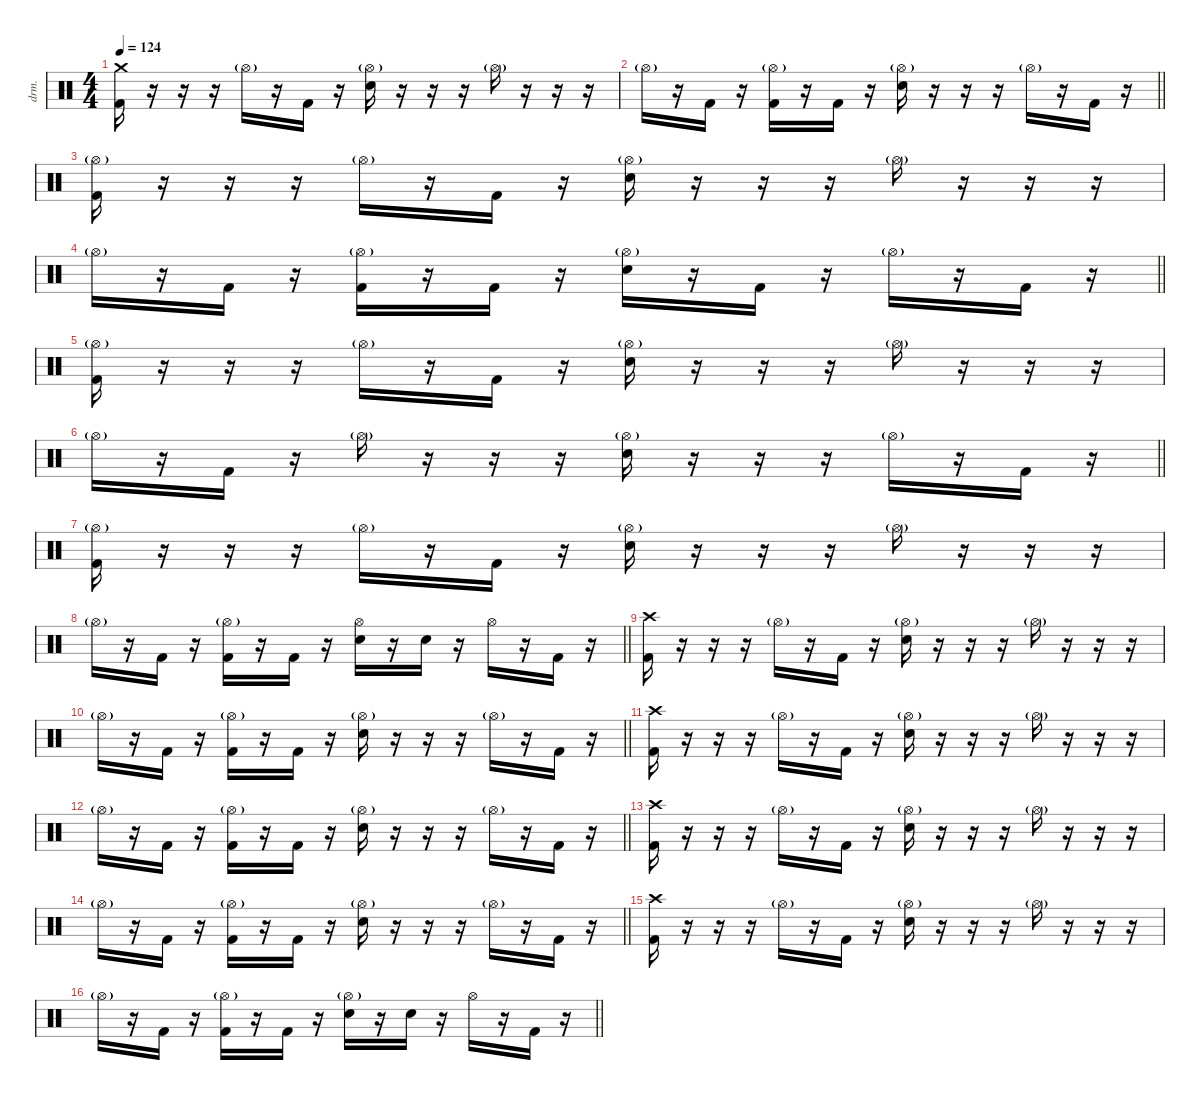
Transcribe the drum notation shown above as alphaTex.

\defaultSystemsLayout 4
\hideDynamics
\bracketExtendMode nobrackets
\otherSystemsTrackNameOrientation horizontal
\track ("Percussion" "drm.") {instrument percussion}
\staff {score}
\articulation defaults
\ts (4 4)
\section ("" "")
\tempo 124
\clef neutral
\ks c
("Kick (hit) 2" "Crash medium (hit)").16{dy f beam Down} r.16{beam Down} r.16{beam Down} r.16{beam Down} "Hi-Hat (open)"{g}.16{dy mf beam Down} r.16{beam Down} "Kick (hit) 2".16{dy f beam Down} r.16{beam Down} ("Snare (hit) 2" "Hi-Hat (open)"{g}).16{beam Down} r.16{beam Down} r.16{beam Down} r.16{beam Down} "Hi-Hat (open)"{g}.16{dy mf beam Down} r.16{beam Down} r.16{beam Down} r.16{beam Down} |
\barLineRight lightlight "Hi-Hat (open)"{g}.16{beam Down}
r.16{beam Down} "Kick (hit) 2".16{dy f beam Down} r.16{beam Down} ("Kick (hit) 2" "Hi-Hat (open)"{g}).16{beam Down} r.16{beam Down} "Kick (hit) 2".16{beam Down} r.16{beam Down} ("Snare (hit) 2" "Hi-Hat (open)"{g}).16{beam Down} r.16{beam Down} r.16{beam Down} r.16{beam Down} "Hi-Hat (open)"{g}.16{dy mf beam Down} r.16{beam Down} "Kick (hit) 2".16{dy f beam Down} r.16{beam Down} |
("Kick (hit) 2" "Hi-Hat (open)"{g}).16{beam Down} r.16{beam Down} r.16{beam Down} r.16{beam Down} "Hi-Hat (open)"{g}.16{dy mf beam Down} r.16{beam Down} "Kick (hit) 2".16{dy f beam Down} r.16{beam Down} ("Snare (hit) 2" "Hi-Hat (open)"{g}).16{beam Down} r.16{beam Down} r.16{beam Down} r.16{beam Down} "Hi-Hat (open)"{g}.16{dy mf beam Down} r.16{beam Down} r.16{beam Down} r.16{beam Down} |
\barLineRight lightlight "Hi-Hat (open)"{g}.16{beam Down}
r.16{beam Down} "Kick (hit) 2".16{dy f beam Down} r.16{beam Down} ("Kick (hit) 2" "Hi-Hat (open)"{g}).16{beam Down} r.16{beam Down} "Kick (hit) 2".16{beam Down} r.16{beam Down} ("Snare (hit) 2" "Hi-Hat (open)"{g}).16{beam Down} r.16{beam Down} "Kick (hit) 2".16{beam Down} r.16{beam Down} "Hi-Hat (open)"{g}.16{dy mf beam Down} r.16{beam Down} "Kick (hit) 2".16{dy f beam Down} r.16{beam Down} |
("Kick (hit) 2" "Hi-Hat (open)"{g}).16{beam Down} r.16{beam Down} r.16{beam Down} r.16{beam Down} "Hi-Hat (open)"{g}.16{dy mf beam Down} r.16{beam Down} "Kick (hit) 2".16{dy f beam Down} r.16{beam Down} ("Snare (hit) 2" "Hi-Hat (open)"{g}).16{beam Down} r.16{beam Down} r.16{beam Down} r.16{beam Down} "Hi-Hat (open)"{g}.16{dy mf beam Down} r.16{beam Down} r.16{beam Down} r.16{beam Down} |
\barLineRight lightlight "Hi-Hat (open)"{g}.16{beam Down}
r.16{beam Down} "Kick (hit) 2".16{dy f beam Down} r.16{beam Down} "Hi-Hat (open)"{g}.16{dy mf beam Down} r.16{beam Down} r.16{beam Down} r.16{beam Down} ("Snare (hit) 2" "Hi-Hat (open)"{g}).16{dy f beam Down} r.16{beam Down} r.16{beam Down} r.16{beam Down} "Hi-Hat (open)"{g}.16{dy mf beam Down} r.16{beam Down} "Kick (hit) 2".16{dy f beam Down} r.16{beam Down} |
("Kick (hit) 2" "Hi-Hat (open)"{g}).16{beam Down} r.16{beam Down} r.16{beam Down} r.16{beam Down} "Hi-Hat (open)"{g}.16{dy mf beam Down} r.16{beam Down} "Kick (hit) 2".16{dy f beam Down} r.16{beam Down} ("Snare (hit) 2" "Hi-Hat (open)"{g}).16{beam Down} r.16{beam Down} r.16{beam Down} r.16{beam Down} "Hi-Hat (open)"{g}.16{dy mf beam Down} r.16{beam Down} r.16{beam Down} r.16{beam Down} |
\barLineRight lightlight "Hi-Hat (open)"{g}.16{beam Down}
r.16{beam Down} "Kick (hit) 2".16{dy f beam Down} r.16{beam Down} ("Kick (hit) 2" "Hi-Hat (open)"{g}).16{beam Down} r.16{beam Down} "Kick (hit) 2".16{beam Down} r.16{beam Down} ("Snare (hit) 2" "Hi-Hat (open)").16{beam Down} r.16{beam Down} "Snare (hit) 2".16{beam Down} r.16{beam Down} "Hi-Hat (open)".16{beam Down} r.16{beam Down} "Kick (hit) 2".16{beam Down} r.16{beam Down} |
("Kick (hit) 2" "Crash high (hit)").16{beam Down} r.16{beam Down} r.16{beam Down} r.16{beam Down} "Hi-Hat (open)"{g}.16{dy mf beam Down} r.16{beam Down} "Kick (hit) 2".16{dy f beam Down} r.16{beam Down} ("Snare (hit) 2" "Hi-Hat (open)"{g}).16{beam Down} r.16{beam Down} r.16{beam Down} r.16{beam Down} "Hi-Hat (open)"{g}.16{dy mf beam Down} r.16{beam Down} r.16{beam Down} r.16{beam Down} |
\barLineRight lightlight "Hi-Hat (open)"{g}.16{beam Down}
r.16{beam Down} "Kick (hit) 2".16{dy f beam Down} r.16{beam Down} ("Kick (hit) 2" "Hi-Hat (open)"{g}).16{beam Down} r.16{beam Down} "Kick (hit) 2".16{beam Down} r.16{beam Down} ("Snare (hit) 2" "Hi-Hat (open)"{g}).16{beam Down} r.16{beam Down} r.16{beam Down} r.16{beam Down} "Hi-Hat (open)"{g}.16{dy mf beam Down} r.16{beam Down} "Kick (hit) 2".16{dy f beam Down} r.16{beam Down} |
("Kick (hit) 2" "Crash high (hit)").16{beam Down} r.16{beam Down} r.16{beam Down} r.16{beam Down} "Hi-Hat (open)"{g}.16{dy mf beam Down} r.16{beam Down} "Kick (hit) 2".16{dy f beam Down} r.16{beam Down} ("Snare (hit) 2" "Hi-Hat (open)"{g}).16{beam Down} r.16{beam Down} r.16{beam Down} r.16{beam Down} "Hi-Hat (open)"{g}.16{dy mf beam Down} r.16{beam Down} r.16{beam Down} r.16{beam Down} |
\barLineRight lightlight "Hi-Hat (open)"{g}.16{beam Down}
r.16{beam Down} "Kick (hit) 2".16{dy f beam Down} r.16{beam Down} ("Kick (hit) 2" "Hi-Hat (open)"{g}).16{beam Down} r.16{beam Down} "Kick (hit) 2".16{beam Down} r.16{beam Down} ("Snare (hit) 2" "Hi-Hat (open)"{g}).16{beam Down} r.16{beam Down} r.16{beam Down} r.16{beam Down} "Hi-Hat (open)"{g}.16{dy mf beam Down} r.16{beam Down} "Kick (hit) 2".16{dy f beam Down} r.16{beam Down} |
("Kick (hit) 2" "Crash high (hit)").16{beam Down} r.16{beam Down} r.16{beam Down} r.16{beam Down} "Hi-Hat (open)"{g}.16{dy mf beam Down} r.16{beam Down} "Kick (hit) 2".16{dy f beam Down} r.16{beam Down} ("Snare (hit) 2" "Hi-Hat (open)"{g}).16{beam Down} r.16{beam Down} r.16{beam Down} r.16{beam Down} "Hi-Hat (open)"{g}.16{dy mf beam Down} r.16{beam Down} r.16{beam Down} r.16{beam Down} |
\barLineRight lightlight "Hi-Hat (open)"{g}.16{beam Down}
r.16{beam Down} "Kick (hit) 2".16{dy f beam Down} r.16{beam Down} ("Kick (hit) 2" "Hi-Hat (open)"{g}).16{beam Down} r.16{beam Down} "Kick (hit) 2".16{beam Down} r.16{beam Down} ("Snare (hit) 2" "Hi-Hat (open)"{g}).16{beam Down} r.16{beam Down} r.16{beam Down} r.16{beam Down} "Hi-Hat (open)"{g}.16{dy mf beam Down} r.16{beam Down} "Kick (hit) 2".16{dy f beam Down} r.16{beam Down} |
("Kick (hit) 2" "Crash high (hit)").16{beam Down} r.16{beam Down} r.16{beam Down} r.16{beam Down} "Hi-Hat (open)"{g}.16{dy mf beam Down} r.16{beam Down} "Kick (hit) 2".16{dy f beam Down} r.16{beam Down} ("Snare (hit) 2" "Hi-Hat (open)"{g}).16{beam Down} r.16{beam Down} r.16{beam Down} r.16{beam Down} "Hi-Hat (open)"{g}.16{dy mf beam Down} r.16{beam Down} r.16{beam Down} r.16{beam Down} |
\barLineRight lightlight "Hi-Hat (open)"{g}.16{beam Down}
r.16{beam Down} "Kick (hit) 2".16{dy f beam Down} r.16{beam Down} ("Kick (hit) 2" "Hi-Hat (open)"{g}).16{beam Down} r.16{beam Down} "Kick (hit) 2".16{beam Down} r.16{beam Down} ("Snare (hit) 2" "Hi-Hat (open)"{g}).16{beam Down} r.16{beam Down} "Snare (hit) 2".16{beam Down} r.16{beam Down} "Hi-Hat (open)".16{beam Down} r.16{beam Down} "Kick (hit) 2".16{beam Down} r.16{beam Down}
